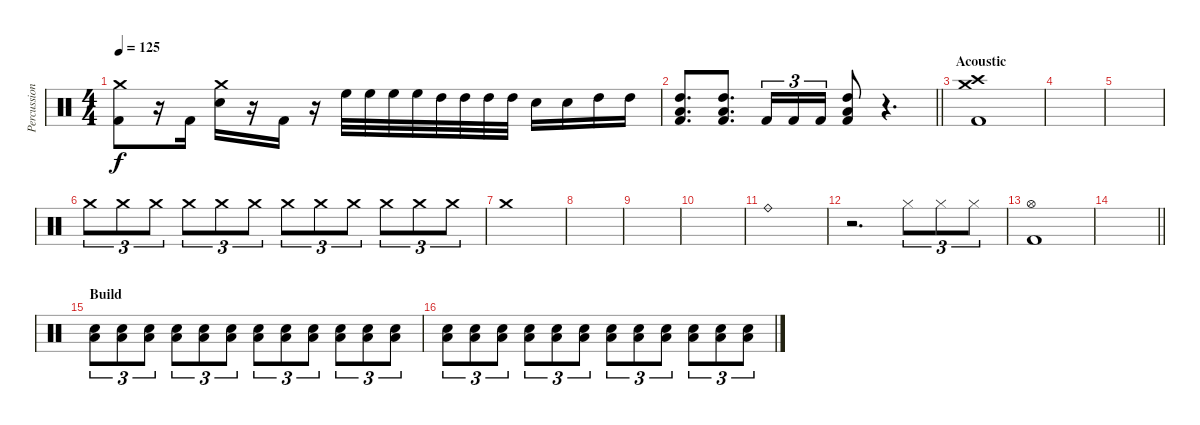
\track ("Percussion" "Percussion") {instrument percussion}
\staff {score}
\articulation defaults
\ts (4 4)
\tempo 125
\clef neutral
\ks c
("Crash medium (hit)" "Kick (hit) 2").8{dy f} r.16 "Kick (hit) 2".16 ("Crash medium (hit)" "Snare (hit) 2").16 r.16 "Kick (hit) 2".16 r.16 "High Floor Tom (hit)".32 "High Floor Tom (hit)".32 "High Floor Tom (hit)".32 "High Floor Tom (hit)".32 "High Tom (hit)".32 "High Tom (hit)".32 "High Tom (hit)".32 "High Tom (hit)".32 "Snare (hit) 2".16 "Snare (hit) 2".16 "High Tom (hit)".16 "High Tom (hit)".16 |
\barLineRight lightlight
("High Tom (hit)" "Low Tom (hit)" "Kick (hit) 2").8{d} ("High Tom (hit)" "Low Tom (hit)" "Kick (hit) 2").8{d} "Kick (hit) 2".16{tu (3 2)} "Kick (hit) 2".16{tu (3 2)} "Kick (hit) 2".16{tu (3 2)} ("High Tom (hit)" "Low Tom (hit)" "Kick (hit) 2").8 r.4{d} |
\section ("" "Acoustic")
("Crash high (hit)" "Crash medium (hit)" "Kick (hit) 2").1 |
|
|
"Crash medium (hit)".8{tu (3 2) volume 13} "Crash medium (hit)".8{tu (3 2)} "Crash medium (hit)".8{tu (3 2)} "Crash medium (hit)".8{tu (3 2)} "Crash medium (hit)".8{tu (3 2)} "Crash medium (hit)".8{tu (3 2)} "Crash medium (hit)".8{tu (3 2)} "Crash medium (hit)".8{tu (3 2)} "Crash medium (hit)".8{tu (3 2)} "Crash medium (hit)".8{tu (3 2)} "Crash medium (hit)".8{tu (3 2)} "Crash medium (hit)".8{tu (3 2)} |
"Crash medium (hit)".1 |
|
|
|
"Ride (bell)".1 |
r.2{d} "Hi-Hat (closed)".8{tu (3 2)} "Hi-Hat (closed)".8{tu (3 2)} "Hi-Hat (closed)".8{tu (3 2)} |
("Hi-Hat (open)" "Kick (hit) 2").1 |
\barLineRight lightlight
|
\section ("" "Build")
("Snare (hit) 2" "Low Tom (hit)").8{tu (3 2) volume 13} ("Snare (hit) 2" "Low Tom (hit)").8{tu (3 2)} ("Snare (hit) 2" "Low Tom (hit)").8{tu (3 2)} ("Snare (hit) 2" "Low Tom (hit)").8{tu (3 2)} ("Snare (hit) 2" "Low Tom (hit)").8{tu (3 2)} ("Snare (hit) 2" "Low Tom (hit)").8{tu (3 2)} ("Snare (hit) 2" "Low Tom (hit)").8{tu (3 2)} ("Snare (hit) 2" "Low Tom (hit)").8{tu (3 2)} ("Snare (hit) 2" "Low Tom (hit)").8{tu (3 2)} ("Snare (hit) 2" "Low Tom (hit)").8{tu (3 2)} ("Snare (hit) 2" "Low Tom (hit)").8{tu (3 2)} ("Snare (hit) 2" "Low Tom (hit)").8{tu (3 2)} |
("Snare (hit) 2" "Low Tom (hit)").8{tu (3 2)} ("Snare (hit) 2" "Low Tom (hit)").8{tu (3 2)} ("Snare (hit) 2" "Low Tom (hit)").8{tu (3 2)} ("Snare (hit) 2" "Low Tom (hit)").8{tu (3 2)} ("Snare (hit) 2" "Low Tom (hit)").8{tu (3 2)} ("Snare (hit) 2" "Low Tom (hit)").8{tu (3 2)} ("Snare (hit) 2" "Low Tom (hit)").8{tu (3 2)} ("Snare (hit) 2" "Low Tom (hit)").8{tu (3 2)} ("Snare (hit) 2" "Low Tom (hit)").8{tu (3 2)} ("Snare (hit) 2" "Low Tom (hit)").8{tu (3 2)} ("Snare (hit) 2" "Low Tom (hit)").8{tu (3 2)} ("Snare (hit) 2" "Low Tom (hit)").8{tu (3 2)}
